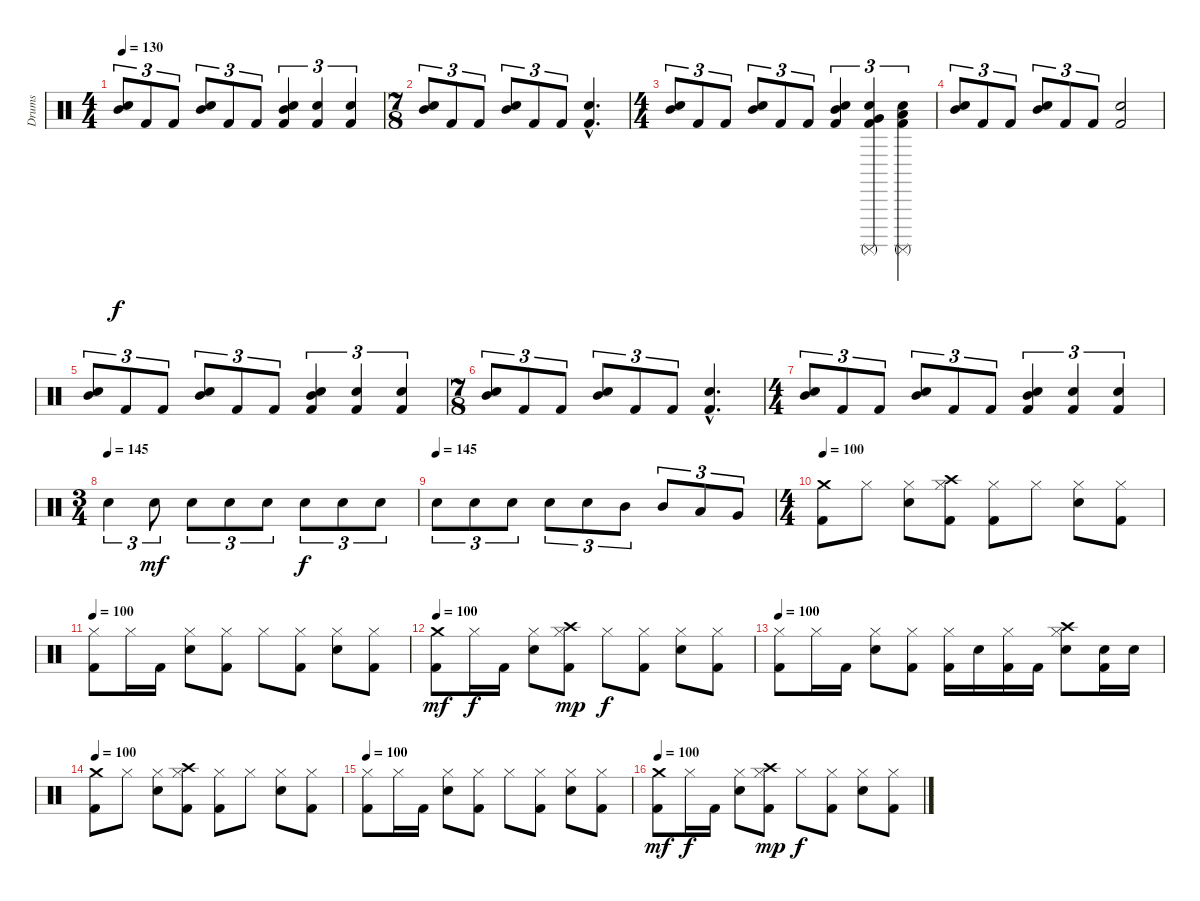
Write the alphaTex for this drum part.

\track ("Drums" "Drums") {instrument percussion}
\staff {score}
\articulation defaults
\ts (4 4)
\tempo 130
\clef neutral
\ks c
("Electric Snare (hit)" "Mid Tom (hit)").8{tu (3 2) dy f} "Kick (hit) 2".8{tu (3 2)} "Kick (hit) 2".8{tu (3 2)} ("Electric Snare (hit)" "Mid Tom (hit)").8{tu (3 2)} "Kick (hit) 2".8{tu (3 2)} "Kick (hit) 2".8{tu (3 2)} ("Electric Snare (hit)" "Mid Tom (hit)" "Kick (hit) 2").4{tu (3 2)} ("Electric Snare (hit)" "Kick (hit) 2").4{tu (3 2)} ("Electric Snare (hit)" "Kick (hit) 2").4{tu (3 2)} |
\ts (7 8)
("Electric Snare (hit)" "Mid Tom (hit)").8{tu (3 2)} "Kick (hit) 2".8{tu (3 2)} "Kick (hit) 2".8{tu (3 2)} ("Electric Snare (hit)" "Mid Tom (hit)").8{tu (3 2)} "Kick (hit) 2".8{tu (3 2)} "Kick (hit) 2".8{tu (3 2)} ("Electric Snare (hit)"{hac} "Kick (hit) 2"{hac}).4{d} |
\ts (4 4)
("Electric Snare (hit)" "Mid Tom (hit)").8{tu (3 2)} "Kick (hit) 2".8{tu (3 2)} "Kick (hit) 2".8{tu (3 2)} ("Electric Snare (hit)" "Mid Tom (hit)").8{tu (3 2)} "Kick (hit) 2".8{tu (3 2)} "Kick (hit) 2".8{tu (3 2)} ("Electric Snare (hit)" "Mid Tom (hit)" "Kick (hit) 2").4{tu (3 2)} ("Surdo (mute)" "Electric Snare (hit)" "Very Low Tom (hit)" "Kick (hit) 2").4{tu (3 2)} ("Surdo (mute)" "Electric Snare (hit)" "Low Tom (hit)" "Kick (hit) 2").4{tu (3 2)} |
("Electric Snare (hit)" "Mid Tom (hit)").8{tu (3 2)} "Kick (hit) 2".8{tu (3 2)} "Kick (hit) 2".8{tu (3 2)} ("Electric Snare (hit)" "Mid Tom (hit)").8{tu (3 2)} "Kick (hit) 2".8{tu (3 2)} "Kick (hit) 2".8{tu (3 2)} ("Electric Snare (hit)" "Kick (hit) 2").2 |
("Electric Snare (hit)" "Mid Tom (hit)").8{tu (3 2)} "Kick (hit) 2".8{tu (3 2)} "Kick (hit) 2".8{tu (3 2)} ("Electric Snare (hit)" "Mid Tom (hit)").8{tu (3 2)} "Kick (hit) 2".8{tu (3 2)} "Kick (hit) 2".8{tu (3 2)} ("Electric Snare (hit)" "Mid Tom (hit)" "Kick (hit) 2").4{tu (3 2)} ("Electric Snare (hit)" "Kick (hit) 2").4{tu (3 2)} ("Electric Snare (hit)" "Kick (hit) 2").4{tu (3 2)} |
\ts (7 8)
("Electric Snare (hit)" "Mid Tom (hit)").8{tu (3 2)} "Kick (hit) 2".8{tu (3 2)} "Kick (hit) 2".8{tu (3 2)} ("Electric Snare (hit)" "Mid Tom (hit)").8{tu (3 2)} "Kick (hit) 2".8{tu (3 2)} "Kick (hit) 2".8{tu (3 2)} ("Electric Snare (hit)"{hac} "Kick (hit) 2"{hac}).4{d} |
\ts (4 4)
("Electric Snare (hit)" "Mid Tom (hit)").8{tu (3 2)} "Kick (hit) 2".8{tu (3 2)} "Kick (hit) 2".8{tu (3 2)} ("Electric Snare (hit)" "Mid Tom (hit)").8{tu (3 2)} "Kick (hit) 2".8{tu (3 2)} "Kick (hit) 2".8{tu (3 2)} ("Electric Snare (hit)" "Mid Tom (hit)" "Kick (hit) 2").4{tu (3 2)} ("Electric Snare (hit)" "Kick (hit) 2").4{tu (3 2)} ("Electric Snare (hit)" "Kick (hit) 2").4{tu (3 2)} |
\ts (3 4)
\tempo (145)
"Electric Snare (hit)".4{tu (3 2)} "Electric Snare (hit)".8{tu (3 2) dy mf} "Electric Snare (hit)".8{tu (3 2)} "Electric Snare (hit)".8{tu (3 2)} "Electric Snare (hit)".8{tu (3 2)} "Electric Snare (hit)".8{tu (3 2) dy f} "Electric Snare (hit)".8{tu (3 2)} "Electric Snare (hit)".8{tu (3 2)} |
\tempo (145)
"Electric Snare (hit)".8{tu (3 2)} "Electric Snare (hit)".8{tu (3 2)} "Electric Snare (hit)".8{tu (3 2)} "Electric Snare (hit)".8{tu (3 2)} "Electric Snare (hit)".8{tu (3 2)} "Mid Tom (hit)".8{tu (3 2)} "Mid Tom (hit)".8{tu (3 2)} "Low Tom (hit)".8{tu (3 2)} "Very Low Tom (hit)".8{tu (3 2)} |
\ts (4 4)
\tempo 100
("Crash medium (hit)" "Kick (hit) 2").8 "Hi-Hat (closed)".8 ("Electric Snare (hit)" "Hi-Hat (closed)").8 ("Crash high (hit)" "Hi-Hat (closed)" "Kick (hit) 2").8 ("Hi-Hat (closed)" "Kick (hit) 2").8 "Hi-Hat (closed)".8 ("Electric Snare (hit)" "Hi-Hat (closed)").8 ("Hi-Hat (closed)" "Kick (hit) 2").8 |
\tempo 100
("Hi-Hat (closed)" "Kick (hit) 2").8 "Hi-Hat (closed)".16 "Kick (hit) 2".16 ("Electric Snare (hit)" "Hi-Hat (closed)").8 ("Hi-Hat (closed)" "Kick (hit) 2").8 "Hi-Hat (closed)".8 ("Hi-Hat (closed)" "Kick (hit) 2").8 ("Electric Snare (hit)" "Hi-Hat (closed)").8 ("Hi-Hat (closed)" "Kick (hit) 2").8 |
\tempo 100
("Crash medium (hit)" "Kick (hit) 2").8{dy mf} "Hi-Hat (closed)".16{dy f} "Kick (hit) 2".16 ("Electric Snare (hit)" "Hi-Hat (closed)").8 ("Crash high (hit)" "Hi-Hat (closed)" "Kick (hit) 2").8{dy mp} "Hi-Hat (closed)".8{dy f} ("Hi-Hat (closed)" "Kick (hit) 2").8 ("Electric Snare (hit)" "Hi-Hat (closed)").8 ("Hi-Hat (closed)" "Kick (hit) 2").8 |
\tempo 100
("Hi-Hat (closed)" "Kick (hit) 2").8 "Hi-Hat (closed)".16 "Kick (hit) 2".16 ("Electric Snare (hit)" "Hi-Hat (closed)").8 ("Hi-Hat (closed)" "Kick (hit) 2").8 ("Hi-Hat (closed)" "Kick (hit) 2").16 "Electric Snare (hit)".16 ("Hi-Hat (closed)" "Kick (hit) 2").16 "Kick (hit) 2".16 ("Crash high (hit)" "Electric Snare (hit)" "Hi-Hat (closed)").8 ("Electric Snare (hit)" "Kick (hit) 2").16 "Electric Snare (hit)".16 |
\tempo 100
("Crash medium (hit)" "Kick (hit) 2").8 "Hi-Hat (closed)".8 ("Electric Snare (hit)" "Hi-Hat (closed)").8 ("Crash high (hit)" "Hi-Hat (closed)" "Kick (hit) 2").8 ("Hi-Hat (closed)" "Kick (hit) 2").8 "Hi-Hat (closed)".8 ("Electric Snare (hit)" "Hi-Hat (closed)").8 ("Hi-Hat (closed)" "Kick (hit) 2").8 |
\tempo 100
("Hi-Hat (closed)" "Kick (hit) 2").8 "Hi-Hat (closed)".16 "Kick (hit) 2".16 ("Electric Snare (hit)" "Hi-Hat (closed)").8 ("Hi-Hat (closed)" "Kick (hit) 2").8 "Hi-Hat (closed)".8 ("Hi-Hat (closed)" "Kick (hit) 2").8 ("Electric Snare (hit)" "Hi-Hat (closed)").8 ("Hi-Hat (closed)" "Kick (hit) 2").8 |
\tempo 100
("Crash medium (hit)" "Kick (hit) 2").8{dy mf} "Hi-Hat (closed)".16{dy f} "Kick (hit) 2".16 ("Electric Snare (hit)" "Hi-Hat (closed)").8 ("Crash high (hit)" "Hi-Hat (closed)" "Kick (hit) 2").8{dy mp} "Hi-Hat (closed)".8{dy f} ("Hi-Hat (closed)" "Kick (hit) 2").8 ("Electric Snare (hit)" "Hi-Hat (closed)").8 ("Hi-Hat (closed)" "Kick (hit) 2").8
